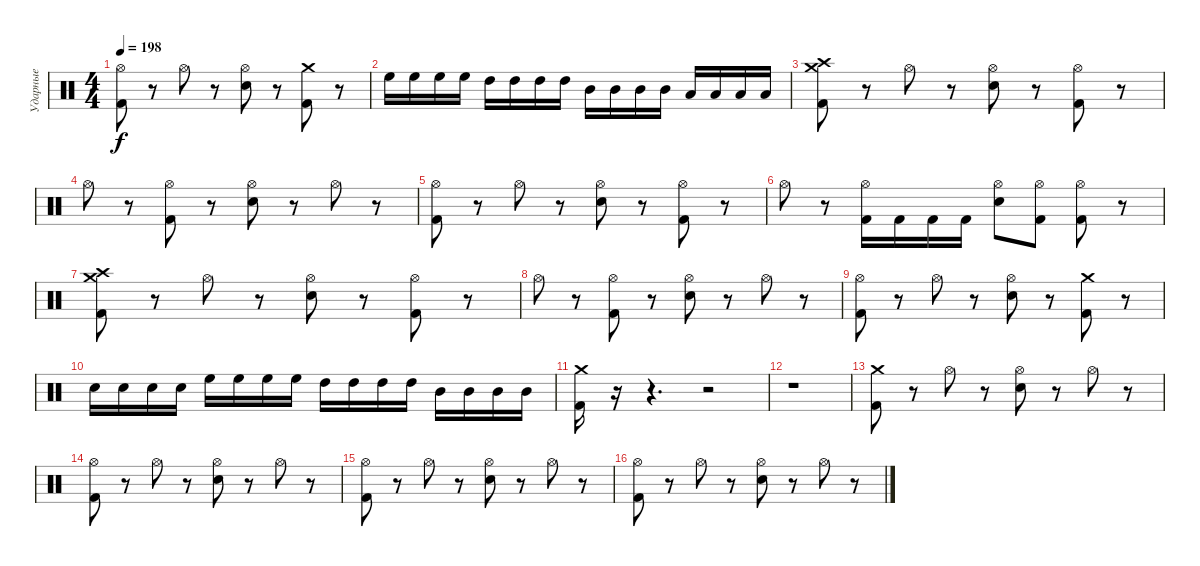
\track ("Ударные" "Ударные") {instrument percussion}
\staff {score}
\articulation defaults
\ts (4 4)
\tempo 198
\clef neutral
\ks c
("Hi-Hat (open)" "Kick (hit) 2").8{dy f} r.8 "Hi-Hat (open)".8 r.8 ("Hi-Hat (open)" "Electric Snare (hit)").8 r.8 ("Crash medium (hit)" "Kick (hit) 2").8 r.8 |
"High Floor Tom (hit)".16 "High Floor Tom (hit)".16 "High Floor Tom (hit)".16 "High Floor Tom (hit)".16 "High Tom (hit)".16 "High Tom (hit)".16 "High Tom (hit)".16 "High Tom (hit)".16 "Mid Tom (hit)".16 "Mid Tom (hit)".16 "Mid Tom (hit)".16 "Mid Tom (hit)".16 "Low Tom (hit)".16 "Low Tom (hit)".16 "Low Tom (hit)".16 "Low Tom (hit)".16 |
("Crash medium (hit)" "Crash high (hit)" "Kick (hit) 2").8 r.8 "Hi-Hat (open)".8 r.8 ("Hi-Hat (open)" "Electric Snare (hit)").8 r.8 ("Hi-Hat (open)" "Kick (hit) 2").8 r.8 |
"Hi-Hat (open)".8 r.8 ("Hi-Hat (open)" "Kick (hit) 2").8 r.8 ("Hi-Hat (open)" "Electric Snare (hit)").8 r.8 "Hi-Hat (open)".8 r.8 |
("Hi-Hat (open)" "Kick (hit) 2").8 r.8 "Hi-Hat (open)".8 r.8 ("Hi-Hat (open)" "Electric Snare (hit)").8 r.8 ("Hi-Hat (open)" "Kick (hit) 2").8 r.8 |
"Hi-Hat (open)".8 r.8 ("Hi-Hat (open)" "Kick (hit) 2").16 "Kick (hit) 2".16 "Kick (hit) 2".16 "Kick (hit) 2".16 ("Hi-Hat (open)" "Electric Snare (hit)").8 ("Hi-Hat (open)" "Kick (hit) 2").8 ("Hi-Hat (open)" "Kick (hit) 2").8 r.8 |
("Crash medium (hit)" "Crash high (hit)" "Kick (hit) 2").8 r.8 "Hi-Hat (open)".8 r.8 ("Hi-Hat (open)" "Electric Snare (hit)").8 r.8 ("Hi-Hat (open)" "Kick (hit) 2").8 r.8 |
"Hi-Hat (open)".8 r.8 ("Hi-Hat (open)" "Kick (hit) 2").8 r.8 ("Hi-Hat (open)" "Electric Snare (hit)").8 r.8 "Hi-Hat (open)".8 r.8 |
("Hi-Hat (open)" "Kick (hit) 2").8 r.8 "Hi-Hat (open)".8 r.8 ("Hi-Hat (open)" "Electric Snare (hit)").8 r.8 ("Crash medium (hit)" "Kick (hit) 2").8 r.8 |
"Electric Snare (hit)".16 "Electric Snare (hit)".16 "Electric Snare (hit)".16 "Electric Snare (hit)".16 "High Floor Tom (hit)".16 "High Floor Tom (hit)".16 "High Floor Tom (hit)".16 "High Floor Tom (hit)".16 "High Tom (hit)".16 "High Tom (hit)".16 "High Tom (hit)".16 "High Tom (hit)".16 "Mid Tom (hit)".16 "Mid Tom (hit)".16 "Mid Tom (hit)".16 "Mid Tom (hit)".16 |
("Kick (hit) 2" "Crash medium (hit)").16 r.16 r.4{d} r.2 |
r.1 |
("Kick (hit) 2" "Crash medium (hit)").8 r.8 "Hi-Hat (open)".8 r.8 ("Electric Snare (hit)" "Hi-Hat (open)").8 r.8 "Hi-Hat (open)".8 r.8 |
("Kick (hit) 2" "Hi-Hat (open)").8 r.8 "Hi-Hat (open)".8 r.8 ("Electric Snare (hit)" "Hi-Hat (open)").8 r.8 "Hi-Hat (open)".8 r.8 |
("Kick (hit) 2" "Hi-Hat (open)").8 r.8 "Hi-Hat (open)".8 r.8 ("Electric Snare (hit)" "Hi-Hat (open)").8 r.8 "Hi-Hat (open)".8 r.8 |
("Kick (hit) 2" "Hi-Hat (open)").8 r.8 "Hi-Hat (open)".8 r.8 ("Electric Snare (hit)" "Hi-Hat (open)").8 r.8 "Hi-Hat (open)".8 r.8
